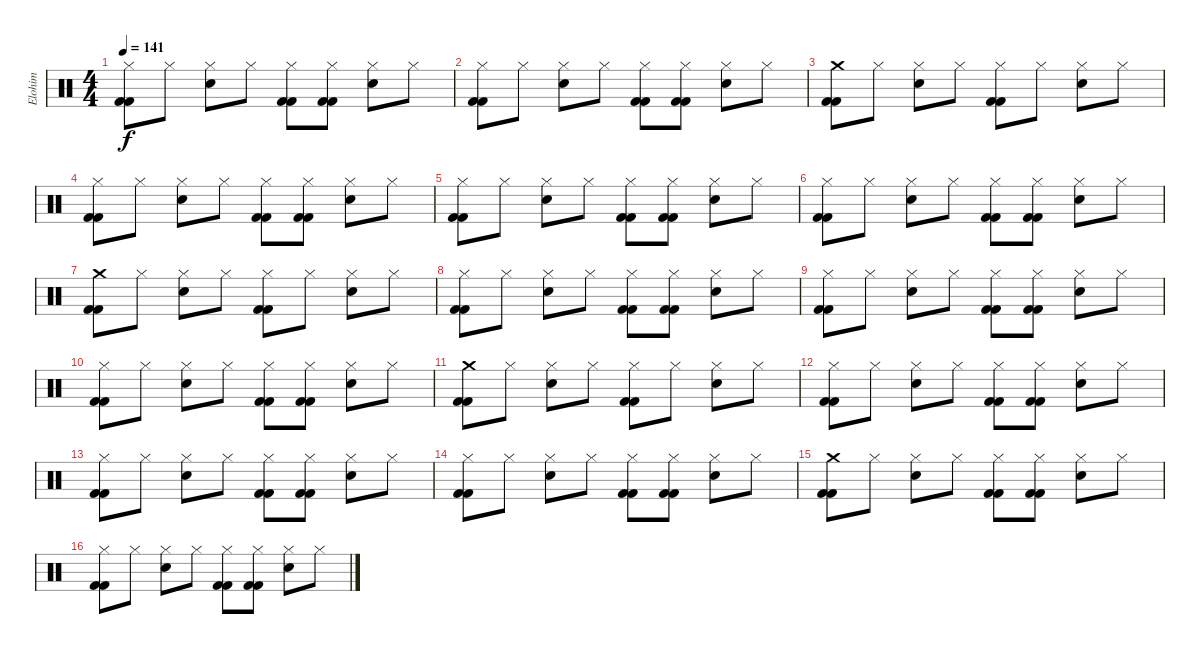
\track ("Elohim" "Elohim") {instrument percussion}
\staff {score}
\articulation defaults
\ts (4 4)
\tempo 141
\clef neutral
\ks c
("Hi-Hat (closed)" "Kick (hit) 2" "Kick (hit) 2").8{dy f} "Hi-Hat (closed)".8 ("Hi-Hat (closed)" "Snare (hit) 2").8 "Hi-Hat (closed)".8 ("Hi-Hat (closed)" "Kick (hit) 2" "Kick (hit) 2").8 ("Hi-Hat (closed)" "Kick (hit) 2" "Kick (hit) 2").8 ("Hi-Hat (closed)" "Snare (hit) 2").8 "Hi-Hat (closed)".8 |
("Hi-Hat (closed)" "Kick (hit) 2" "Kick (hit) 2").8 "Hi-Hat (closed)".8 ("Hi-Hat (closed)" "Snare (hit) 2").8 "Hi-Hat (closed)".8 ("Hi-Hat (closed)" "Kick (hit) 2" "Kick (hit) 2").8 ("Hi-Hat (closed)" "Kick (hit) 2" "Kick (hit) 2").8 ("Hi-Hat (closed)" "Snare (hit) 2").8 "Hi-Hat (closed)".8 |
("Crash medium (hit)" "Kick (hit) 2" "Kick (hit) 2").8 "Hi-Hat (closed)".8 ("Hi-Hat (closed)" "Snare (hit) 2").8 "Hi-Hat (closed)".8 ("Hi-Hat (closed)" "Kick (hit) 2" "Kick (hit) 2").8 "Hi-Hat (closed)".8 ("Hi-Hat (closed)" "Snare (hit) 2").8 "Hi-Hat (closed)".8 |
("Hi-Hat (closed)" "Kick (hit) 2" "Kick (hit) 2").8 "Hi-Hat (closed)".8 ("Hi-Hat (closed)" "Snare (hit) 2").8 "Hi-Hat (closed)".8 ("Hi-Hat (closed)" "Kick (hit) 2" "Kick (hit) 2").8 ("Hi-Hat (closed)" "Kick (hit) 2" "Kick (hit) 2").8 ("Hi-Hat (closed)" "Snare (hit) 2").8 "Hi-Hat (closed)".8 |
("Hi-Hat (closed)" "Kick (hit) 2" "Kick (hit) 2").8 "Hi-Hat (closed)".8 ("Hi-Hat (closed)" "Snare (hit) 2").8 "Hi-Hat (closed)".8 ("Hi-Hat (closed)" "Kick (hit) 2" "Kick (hit) 2").8 ("Hi-Hat (closed)" "Kick (hit) 2" "Kick (hit) 2").8 ("Hi-Hat (closed)" "Snare (hit) 2").8 "Hi-Hat (closed)".8 |
("Hi-Hat (closed)" "Kick (hit) 2" "Kick (hit) 2").8 "Hi-Hat (closed)".8 ("Hi-Hat (closed)" "Snare (hit) 2").8 "Hi-Hat (closed)".8 ("Hi-Hat (closed)" "Kick (hit) 2" "Kick (hit) 2").8 ("Hi-Hat (closed)" "Kick (hit) 2" "Kick (hit) 2").8 ("Hi-Hat (closed)" "Snare (hit) 2").8 "Hi-Hat (closed)".8 |
("Crash medium (hit)" "Kick (hit) 2" "Kick (hit) 2").8 "Hi-Hat (closed)".8 ("Hi-Hat (closed)" "Snare (hit) 2").8 "Hi-Hat (closed)".8 ("Hi-Hat (closed)" "Kick (hit) 2" "Kick (hit) 2").8 "Hi-Hat (closed)".8 ("Hi-Hat (closed)" "Snare (hit) 2").8 "Hi-Hat (closed)".8 |
("Hi-Hat (closed)" "Kick (hit) 2" "Kick (hit) 2").8 "Hi-Hat (closed)".8 ("Hi-Hat (closed)" "Snare (hit) 2").8 "Hi-Hat (closed)".8 ("Hi-Hat (closed)" "Kick (hit) 2" "Kick (hit) 2").8 ("Hi-Hat (closed)" "Kick (hit) 2" "Kick (hit) 2").8 ("Hi-Hat (closed)" "Snare (hit) 2").8 "Hi-Hat (closed)".8 |
("Hi-Hat (closed)" "Kick (hit) 2" "Kick (hit) 2").8 "Hi-Hat (closed)".8 ("Hi-Hat (closed)" "Snare (hit) 2").8 "Hi-Hat (closed)".8 ("Hi-Hat (closed)" "Kick (hit) 2" "Kick (hit) 2").8 ("Hi-Hat (closed)" "Kick (hit) 2" "Kick (hit) 2").8 ("Hi-Hat (closed)" "Snare (hit) 2").8 "Hi-Hat (closed)".8 |
("Hi-Hat (closed)" "Kick (hit) 2" "Kick (hit) 2").8 "Hi-Hat (closed)".8 ("Hi-Hat (closed)" "Snare (hit) 2").8 "Hi-Hat (closed)".8 ("Hi-Hat (closed)" "Kick (hit) 2" "Kick (hit) 2").8 ("Hi-Hat (closed)" "Kick (hit) 2" "Kick (hit) 2").8 ("Hi-Hat (closed)" "Snare (hit) 2").8 "Hi-Hat (closed)".8 |
("Crash medium (hit)" "Kick (hit) 2" "Kick (hit) 2").8 "Hi-Hat (closed)".8 ("Hi-Hat (closed)" "Snare (hit) 2").8 "Hi-Hat (closed)".8 ("Hi-Hat (closed)" "Kick (hit) 2" "Kick (hit) 2").8 "Hi-Hat (closed)".8 ("Hi-Hat (closed)" "Snare (hit) 2").8 "Hi-Hat (closed)".8 |
("Hi-Hat (closed)" "Kick (hit) 2" "Kick (hit) 2").8 "Hi-Hat (closed)".8 ("Hi-Hat (closed)" "Snare (hit) 2").8 "Hi-Hat (closed)".8 ("Hi-Hat (closed)" "Kick (hit) 2" "Kick (hit) 2").8 ("Hi-Hat (closed)" "Kick (hit) 2" "Kick (hit) 2").8 ("Hi-Hat (closed)" "Snare (hit) 2").8 "Hi-Hat (closed)".8 |
("Hi-Hat (closed)" "Kick (hit) 2" "Kick (hit) 2").8 "Hi-Hat (closed)".8 ("Hi-Hat (closed)" "Snare (hit) 2").8 "Hi-Hat (closed)".8 ("Hi-Hat (closed)" "Kick (hit) 2" "Kick (hit) 2").8 ("Hi-Hat (closed)" "Kick (hit) 2" "Kick (hit) 2").8 ("Hi-Hat (closed)" "Snare (hit) 2").8 "Hi-Hat (closed)".8 |
("Hi-Hat (closed)" "Kick (hit) 2" "Kick (hit) 2").8 "Hi-Hat (closed)".8 ("Hi-Hat (closed)" "Snare (hit) 2").8 "Hi-Hat (closed)".8 ("Hi-Hat (closed)" "Kick (hit) 2" "Kick (hit) 2").8 ("Hi-Hat (closed)" "Kick (hit) 2" "Kick (hit) 2").8 ("Hi-Hat (closed)" "Snare (hit) 2").8 "Hi-Hat (closed)".8 |
("Crash medium (hit)" "Kick (hit) 2" "Kick (hit) 2").8 "Hi-Hat (closed)".8 ("Hi-Hat (closed)" "Snare (hit) 2").8 "Hi-Hat (closed)".8 ("Hi-Hat (closed)" "Kick (hit) 2" "Kick (hit) 2").8 ("Hi-Hat (closed)" "Kick (hit) 2" "Kick (hit) 2").8 ("Hi-Hat (closed)" "Snare (hit) 2").8 "Hi-Hat (closed)".8 |
("Hi-Hat (closed)" "Kick (hit) 2" "Kick (hit) 2").8 "Hi-Hat (closed)".8 ("Hi-Hat (closed)" "Snare (hit) 2").8 "Hi-Hat (closed)".8 ("Hi-Hat (closed)" "Kick (hit) 2" "Kick (hit) 2").8 ("Hi-Hat (closed)" "Kick (hit) 2" "Kick (hit) 2").8 ("Hi-Hat (closed)" "Snare (hit) 2").8 "Hi-Hat (closed)".8
